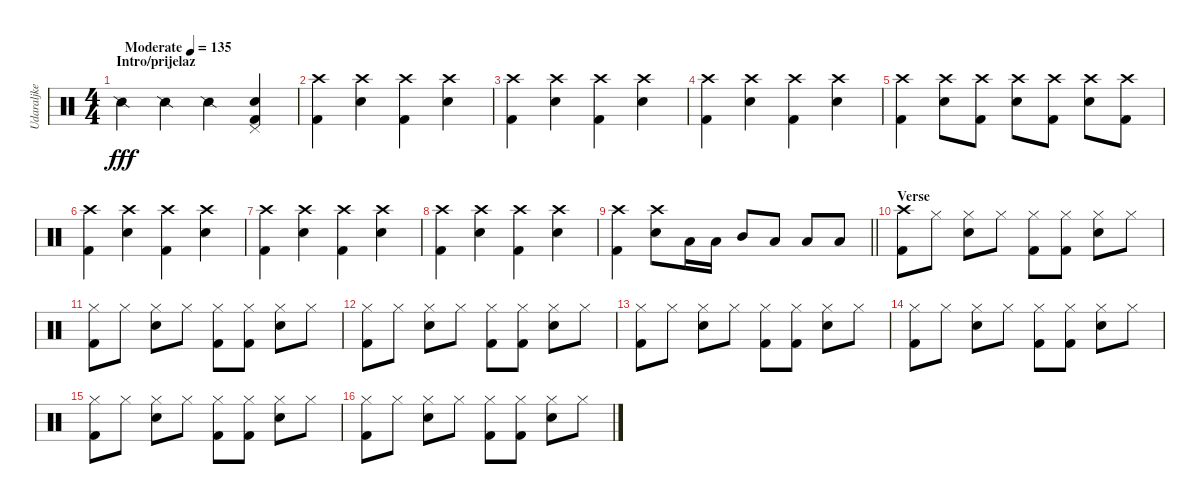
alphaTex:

\track ("Udaraljke" "Udaraljke") {instrument percussion}
\staff
\articulation defaults
\ts (4 4)
\section ("" "Intro/prijelaz")
\tempo (135 "Moderate")
\clef neutral
\ks c "Snare (side stick) 2".4{dy fff} "Snare (side stick) 2".4 "Snare (side stick) 2".4
("Pedal Hi-Hat (hit)" "Kick (hit) 2" "Snare (hit) 2").4 |
("Crash high (hit)" "Kick (hit) 2").4 ("Crash high (hit)" "Snare (hit) 2").4 ("Crash high (hit)" "Kick (hit) 2").4 ("Crash high (hit)" "Snare (hit) 2").4 |
("Crash high (hit)" "Kick (hit) 2").4 ("Crash high (hit)" "Snare (hit) 2").4 ("Crash high (hit)" "Kick (hit) 2").4 ("Crash high (hit)" "Snare (hit) 2").4 |
("Crash high (hit)" "Kick (hit) 2").4 ("Crash high (hit)" "Snare (hit) 2").4 ("Crash high (hit)" "Kick (hit) 2").4 ("Crash high (hit)" "Snare (hit) 2").4 |
("Crash high (hit)" "Kick (hit) 2").4 ("Crash high (hit)" "Snare (hit) 2").8 ("Crash high (hit)" "Kick (hit) 2").8 ("Crash high (hit)" "Snare (hit) 2").8 ("Crash high (hit)" "Kick (hit) 2").8 ("Crash high (hit)" "Snare (hit) 2").8 ("Crash high (hit)" "Kick (hit) 2").8 |
("Crash high (hit)" "Kick (hit) 2").4 ("Crash high (hit)" "Snare (hit) 2").4 ("Crash high (hit)" "Kick (hit) 2").4 ("Crash high (hit)" "Snare (hit) 2").4 |
("Crash high (hit)" "Kick (hit) 2").4 ("Crash high (hit)" "Snare (hit) 2").4 ("Crash high (hit)" "Kick (hit) 2").4 ("Crash high (hit)" "Snare (hit) 2").4 |
("Crash high (hit)" "Kick (hit) 2").4 ("Crash high (hit)" "Snare (hit) 2").4 ("Crash high (hit)" "Kick (hit) 2").4 ("Crash high (hit)" "Snare (hit) 2").4 |
\barLineRight lightlight
("Crash high (hit)" "Kick (hit) 2").4 ("Crash high (hit)" "Snare (hit) 2").8 "Low Tom (hit)".16 "Low Tom (hit)".16 "Mid Tom (hit)".8 "Low Tom (hit)".8 "Low Tom (hit)".8 "Low Tom (hit)".8 |
\section ("" "Verse")
("Crash high (hit)" "Kick (hit) 2").8 "Hi-Hat (closed)".8 ("Hi-Hat (closed)" "Snare (hit) 2").8 "Hi-Hat (closed)".8 ("Hi-Hat (closed)" "Kick (hit) 2").8 ("Hi-Hat (closed)" "Kick (hit) 2").8 ("Hi-Hat (closed)" "Snare (hit) 2").8 "Hi-Hat (closed)".8 |
("Hi-Hat (closed)" "Kick (hit) 2").8 "Hi-Hat (closed)".8 ("Hi-Hat (closed)" "Snare (hit) 2").8 "Hi-Hat (closed)".8 ("Hi-Hat (closed)" "Kick (hit) 2").8 ("Hi-Hat (closed)" "Kick (hit) 2").8 ("Hi-Hat (closed)" "Snare (hit) 2").8 "Hi-Hat (closed)".8 |
("Hi-Hat (closed)" "Kick (hit) 2").8 "Hi-Hat (closed)".8 ("Hi-Hat (closed)" "Snare (hit) 2").8 "Hi-Hat (closed)".8 ("Hi-Hat (closed)" "Kick (hit) 2").8 ("Hi-Hat (closed)" "Kick (hit) 2").8 ("Hi-Hat (closed)" "Snare (hit) 2").8 "Hi-Hat (closed)".8 |
("Hi-Hat (closed)" "Kick (hit) 2").8 "Hi-Hat (closed)".8 ("Hi-Hat (closed)" "Snare (hit) 2").8 "Hi-Hat (closed)".8 ("Hi-Hat (closed)" "Kick (hit) 2").8 ("Hi-Hat (closed)" "Kick (hit) 2").8 ("Hi-Hat (closed)" "Snare (hit) 2").8 "Hi-Hat (closed)".8 |
("Hi-Hat (closed)" "Kick (hit) 2").8 "Hi-Hat (closed)".8 ("Hi-Hat (closed)" "Snare (hit) 2").8 "Hi-Hat (closed)".8 ("Hi-Hat (closed)" "Kick (hit) 2").8 ("Hi-Hat (closed)" "Kick (hit) 2").8 ("Hi-Hat (closed)" "Snare (hit) 2").8 "Hi-Hat (closed)".8 |
("Hi-Hat (closed)" "Kick (hit) 2").8 "Hi-Hat (closed)".8 ("Hi-Hat (closed)" "Snare (hit) 2").8 "Hi-Hat (closed)".8 ("Hi-Hat (closed)" "Kick (hit) 2").8 ("Hi-Hat (closed)" "Kick (hit) 2").8 ("Hi-Hat (closed)" "Snare (hit) 2").8 "Hi-Hat (closed)".8 |
("Hi-Hat (closed)" "Kick (hit) 2").8 "Hi-Hat (closed)".8 ("Hi-Hat (closed)" "Snare (hit) 2").8 "Hi-Hat (closed)".8 ("Hi-Hat (closed)" "Kick (hit) 2").8 ("Hi-Hat (closed)" "Kick (hit) 2").8 ("Hi-Hat (closed)" "Snare (hit) 2").8 "Hi-Hat (closed)".8
